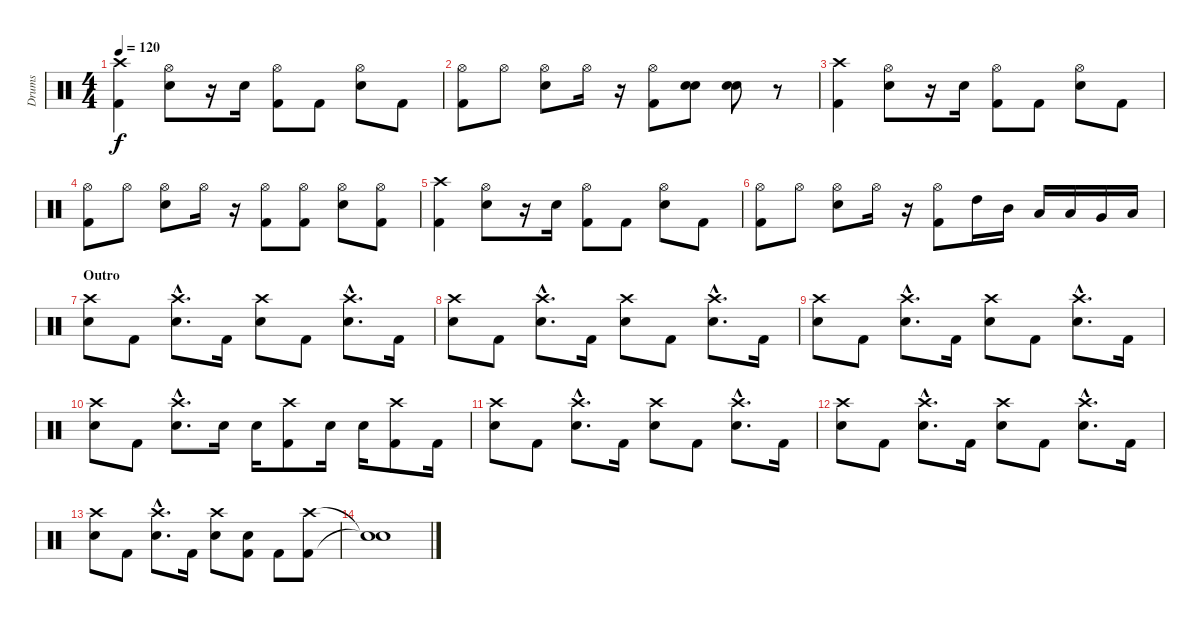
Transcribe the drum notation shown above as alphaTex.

\track ("Drums" "Drums") {instrument percussion}
\staff {score}
\articulation defaults
\ts (4 4)
\tempo 120
\clef neutral
\ks c
("Crash high (hit)" "Kick (hit) 2").4{dy f} ("Hi-Hat (open)" "Snare (hit) 2").8 r.16 "Snare (hit) 2".16 ("Hi-Hat (open)" "Kick (hit) 2").8 "Kick (hit) 2".8 ("Hi-Hat (open)" "Snare (hit) 2").8 "Kick (hit) 2".8 |
("Hi-Hat (open)" "Kick (hit) 2").8 "Hi-Hat (open)".8 ("Hi-Hat (open)" "Snare (hit) 2").8 "Hi-Hat (open)".16 r.16 ("Hi-Hat (open)" "Kick (hit) 2").8 ("Snare (hit) 2" "Snare (hit) 2").8 ("Snare (hit) 2" "Snare (hit) 2").8 r.8 |
("Crash high (hit)" "Kick (hit) 2").4 ("Hi-Hat (open)" "Snare (hit) 2").8 r.16 "Snare (hit) 2".16 ("Hi-Hat (open)" "Kick (hit) 2").8 "Kick (hit) 2".8 ("Hi-Hat (open)" "Snare (hit) 2").8 "Kick (hit) 2".8 |
("Hi-Hat (open)" "Kick (hit) 2").8 "Hi-Hat (open)".8 ("Hi-Hat (open)" "Snare (hit) 2").8 "Hi-Hat (open)".16 r.16 ("Hi-Hat (open)" "Kick (hit) 2").8 ("Hi-Hat (open)" "Kick (hit) 2").8 ("Hi-Hat (open)" "Snare (hit) 2").8 ("Hi-Hat (open)" "Kick (hit) 2").8 |
("Crash high (hit)" "Kick (hit) 2").4 ("Hi-Hat (open)" "Snare (hit) 2").8 r.16 "Snare (hit) 2".16 ("Hi-Hat (open)" "Kick (hit) 2").8 "Kick (hit) 2".8 ("Hi-Hat (open)" "Snare (hit) 2").8 "Kick (hit) 2".8 |
("Hi-Hat (open)" "Kick (hit) 2").8 "Hi-Hat (open)".8 ("Hi-Hat (open)" "Snare (hit) 2").8 "Hi-Hat (open)".16 r.16 ("Hi-Hat (open)" "Kick (hit) 2").8 "High Tom (hit)".16 "Mid Tom (hit)".16 "Low Tom (hit)".16 "Low Tom (hit)".16 "Very Low Tom (hit)".16 "Low Floor Tom (hit)".16 |
\section ("" "Outro")
("Crash high (hit)" "Snare (hit) 2").8 "Kick (hit) 2".8 ("Crash high (hit)"{hac} "Snare (hit) 2"{hac}).8{d} "Kick (hit) 2".16 ("Crash high (hit)" "Snare (hit) 2").8 "Kick (hit) 2".8 ("Crash high (hit)"{hac} "Snare (hit) 2"{hac}).8{d} "Kick (hit) 2".16 |
("Crash high (hit)" "Snare (hit) 2").8 "Kick (hit) 2".8 ("Crash high (hit)"{hac} "Snare (hit) 2"{hac}).8{d} "Kick (hit) 2".16 ("Crash high (hit)" "Snare (hit) 2").8 "Kick (hit) 2".8 ("Crash high (hit)"{hac} "Snare (hit) 2"{hac}).8{d} "Kick (hit) 2".16 |
("Crash high (hit)" "Snare (hit) 2").8 "Kick (hit) 2".8 ("Crash high (hit)"{hac} "Snare (hit) 2"{hac}).8{d} "Kick (hit) 2".16 ("Crash high (hit)" "Snare (hit) 2").8 "Kick (hit) 2".8 ("Crash high (hit)"{hac} "Snare (hit) 2"{hac}).8{d} "Kick (hit) 2".16 |
("Crash high (hit)" "Snare (hit) 2").8 "Kick (hit) 2".8 ("Crash high (hit)"{hac} "Snare (hit) 2"{hac}).8{d} "Snare (hit) 2".16 "Snare (hit) 2".16 ("Crash high (hit)" "Kick (hit) 2").8 "Snare (hit) 2".16 "Snare (hit) 2".16 ("Crash high (hit)" "Kick (hit) 2").8 "Kick (hit) 2".16 |
("Crash high (hit)" "Snare (hit) 2").8 "Kick (hit) 2".8 ("Crash high (hit)"{hac} "Snare (hit) 2"{hac}).8{d} "Kick (hit) 2".16 ("Crash high (hit)" "Snare (hit) 2").8 "Kick (hit) 2".8 ("Crash high (hit)"{hac} "Snare (hit) 2"{hac}).8{d} "Kick (hit) 2".16 |
("Crash high (hit)" "Snare (hit) 2").8 "Kick (hit) 2".8 ("Crash high (hit)"{hac} "Snare (hit) 2"{hac}).8{d} "Kick (hit) 2".16 ("Crash high (hit)" "Snare (hit) 2").8 "Kick (hit) 2".8 ("Crash high (hit)"{hac} "Snare (hit) 2"{hac}).8{d} "Kick (hit) 2".16 |
("Crash high (hit)" "Snare (hit) 2").8 "Kick (hit) 2".8 ("Crash high (hit)"{hac} "Snare (hit) 2"{hac}).8{d} "Kick (hit) 2".16 ("Crash high (hit)" "Snare (hit) 2").8 ("Snare (hit) 2" "Kick (hit) 2").8 "Kick (hit) 2".8 ("Crash high (hit)" "Kick (hit) 2").8 |
("Snare (hit)"{t} "Snare (hit)"{t}).1
